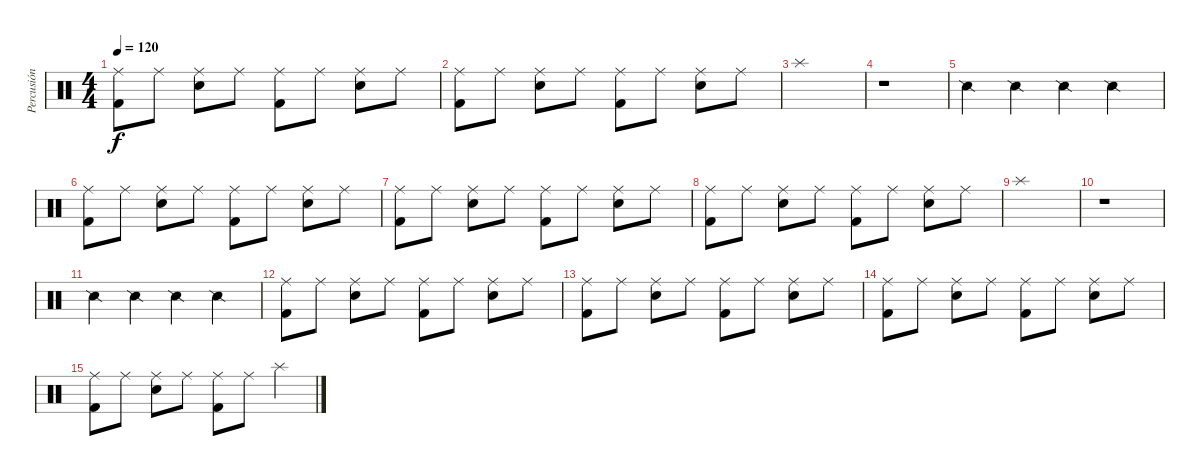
\track ("Percusión" "Percusión") {instrument percussion}
\staff {score}
\articulation defaults
\ts (4 4)
\tempo 120
\clef neutral
\ks c
("Kick (hit) 2" "Ride (middle)").8{dy f} "Ride (middle)".8 ("Snare (hit) 2" "Ride (middle)").8 "Ride (middle)".8 ("Kick (hit) 2" "Ride (middle)").8 "Ride (middle)".8 ("Snare (hit) 2" "Ride (middle)").8 "Ride (middle)".8 |
("Kick (hit) 2" "Ride (middle)").8 "Ride (middle)".8 ("Snare (hit) 2" "Ride (middle)").8 "Ride (middle)".8 ("Kick (hit) 2" "Ride (middle)").8 "Ride (middle)".8 ("Snare (hit) 2" "Ride (middle)").8 "Ride (middle)".8 |
"Splash (hit)".1 |
r.1 |
"Snare (side stick) 2".4 "Snare (side stick) 2".4 "Snare (side stick) 2".4 "Snare (side stick) 2".4 |
("Kick (hit) 2" "Ride (middle)").8 "Ride (middle)".8 ("Snare (hit) 2" "Ride (middle)").8 "Ride (middle)".8 ("Kick (hit) 2" "Ride (middle)").8 "Ride (middle)".8 ("Snare (hit) 2" "Ride (middle)").8 "Ride (middle)".8 |
("Kick (hit) 2" "Ride (middle)").8 "Ride (middle)".8 ("Snare (hit) 2" "Ride (middle)").8 "Ride (middle)".8 ("Kick (hit) 2" "Ride (middle)").8 "Ride (middle)".8 ("Snare (hit) 2" "Ride (middle)").8 "Ride (middle)".8 |
("Kick (hit) 2" "Ride (middle)").8 "Ride (middle)".8 ("Snare (hit) 2" "Ride (middle)").8 "Ride (middle)".8 ("Kick (hit) 2" "Ride (middle)").8 "Ride (middle)".8 ("Snare (hit) 2" "Ride (middle)").8 "Ride (middle)".8 |
"Splash (hit)".1 |
r.1 |
"Snare (side stick) 2".4 "Snare (side stick) 2".4 "Snare (side stick) 2".4 "Snare (side stick) 2".4 |
("Kick (hit) 2" "Ride (middle)").8 "Ride (middle)".8 ("Snare (hit) 2" "Ride (middle)").8 "Ride (middle)".8 ("Kick (hit) 2" "Ride (middle)").8 "Ride (middle)".8 ("Snare (hit) 2" "Ride (middle)").8 "Ride (middle)".8 |
("Kick (hit) 2" "Ride (middle)").8 "Ride (middle)".8 ("Snare (hit) 2" "Ride (middle)").8 "Ride (middle)".8 ("Kick (hit) 2" "Ride (middle)").8 "Ride (middle)".8 ("Snare (hit) 2" "Ride (middle)").8 "Ride (middle)".8 |
("Kick (hit) 2" "Ride (middle)").8 "Ride (middle)".8 ("Snare (hit) 2" "Ride (middle)").8 "Ride (middle)".8 ("Kick (hit) 2" "Ride (middle)").8 "Ride (middle)".8 ("Snare (hit) 2" "Ride (middle)").8 "Ride (middle)".8 |
("Kick (hit) 2" "Ride (middle)").8 "Ride (middle)".8 ("Snare (hit) 2" "Ride (middle)").8 "Ride (middle)".8 ("Kick (hit) 2" "Ride (middle)").8 "Ride (middle)".8 "Splash (hit)".4
